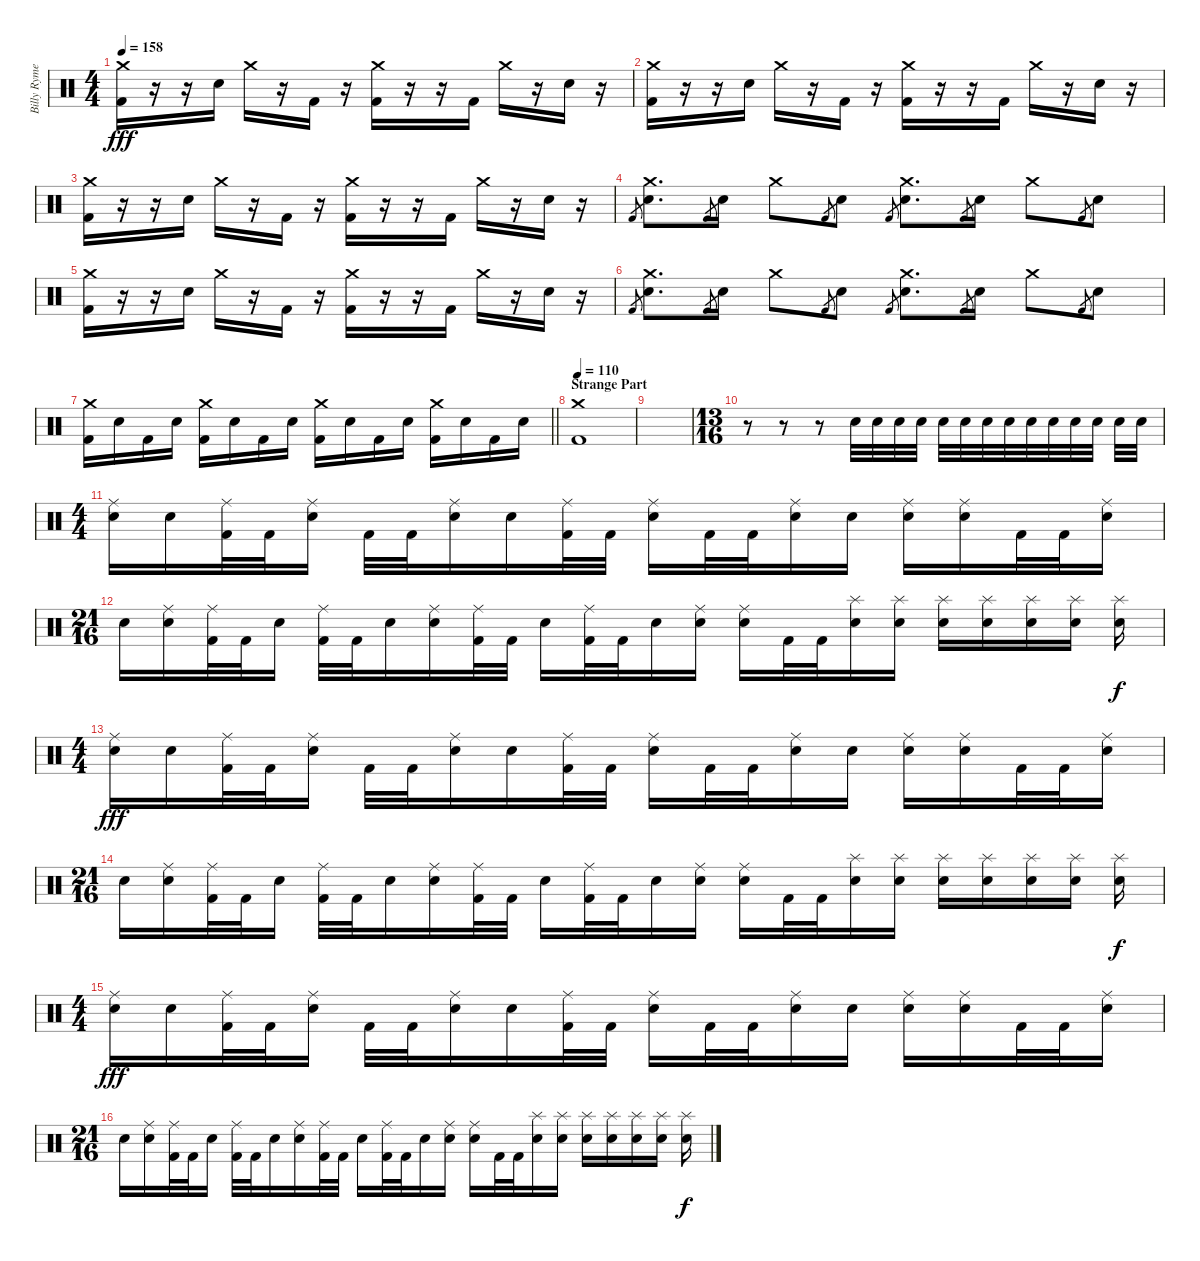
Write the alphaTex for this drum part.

\track ("Billy Rymer" "Billy Ryme") {instrument percussion}
\staff {score}
\articulation defaults
\ts (4 4)
\tempo 158
\clef neutral
\ks c
("Crash medium (hit)" "Kick (hit) 2").16{dy fff} r.16 r.16 "Electric Snare (hit)".16 "Crash medium (hit)".16 r.16 "Kick (hit) 2".16 r.16 ("Crash medium (hit)" "Kick (hit) 2").16 r.16 r.16 "Kick (hit) 2".16 "Crash medium (hit)".16 r.16 "Electric Snare (hit)".16 r.16 |
("Crash medium (hit)" "Kick (hit) 2").16 r.16 r.16 "Electric Snare (hit)".16 "Crash medium (hit)".16 r.16 "Kick (hit) 2".16 r.16 ("Crash medium (hit)" "Kick (hit) 2").16 r.16 r.16 "Kick (hit) 2".16 "Crash medium (hit)".16 r.16 "Electric Snare (hit)".16 r.16 |
("Crash medium (hit)" "Kick (hit) 2").16 r.16 r.16 "Electric Snare (hit)".16 "Crash medium (hit)".16 r.16 "Kick (hit) 2".16 r.16 ("Crash medium (hit)" "Kick (hit) 2").16 r.16 r.16 "Kick (hit) 2".16 "Crash medium (hit)".16 r.16 "Electric Snare (hit)".16 r.16 |
"Kick (hit) 2".8{gr} ("Crash medium (hit)" "Electric Snare (hit)").8{d} "Kick (hit) 2".8{gr} "Electric Snare (hit)".16 "Crash medium (hit)".8 "Kick (hit) 2".8{gr} "Electric Snare (hit)".8 "Kick (hit) 2".8{gr} ("Crash medium (hit)" "Electric Snare (hit)").8{d} "Kick (hit) 2".8{gr} "Electric Snare (hit)".16 "Crash medium (hit)".8 "Kick (hit) 2".8{gr} "Electric Snare (hit)".8 |
("Crash medium (hit)" "Kick (hit) 2").16 r.16 r.16 "Electric Snare (hit)".16 "Crash medium (hit)".16 r.16 "Kick (hit) 2".16 r.16 ("Crash medium (hit)" "Kick (hit) 2").16 r.16 r.16 "Kick (hit) 2".16 "Crash medium (hit)".16 r.16 "Electric Snare (hit)".16 r.16 |
"Kick (hit) 2".8{gr} ("Crash medium (hit)" "Electric Snare (hit)").8{d} "Kick (hit) 2".8{gr} "Electric Snare (hit)".16 "Crash medium (hit)".8 "Kick (hit) 2".8{gr} "Electric Snare (hit)".8 "Kick (hit) 2".8{gr} ("Crash medium (hit)" "Electric Snare (hit)").8{d} "Kick (hit) 2".8{gr} "Electric Snare (hit)".16 "Crash medium (hit)".8 "Kick (hit) 2".8{gr} "Electric Snare (hit)".8 |
\barLineRight lightlight
("Crash medium (hit)" "Kick (hit) 2").16 "Electric Snare (hit)".16 "Kick (hit) 2".16 "Electric Snare (hit)".16 ("Crash medium (hit)" "Kick (hit) 2").16 "Electric Snare (hit)".16 "Kick (hit) 2".16 "Electric Snare (hit)".16 ("Crash medium (hit)" "Kick (hit) 2").16 "Electric Snare (hit)".16 "Kick (hit) 2".16 "Electric Snare (hit)".16 ("Crash medium (hit)" "Kick (hit) 2").16 "Electric Snare (hit)".16 "Kick (hit) 2".16 "Electric Snare (hit)".16 |
\section ("" "Strange Part")
\tempo 110
("Crash medium (hit)" "Kick (hit) 2").1 |
|
\ts (13 16)
r.8 r.8 r.8 "Electric Snare (hit)".32 "Electric Snare (hit)".32 "Electric Snare (hit)".32 "Electric Snare (hit)".32 "Electric Snare (hit)".32 "Electric Snare (hit)".32 "Electric Snare (hit)".32 "Electric Snare (hit)".32 "Electric Snare (hit)".32 "Electric Snare (hit)".32 "Electric Snare (hit)".32 "Electric Snare (hit)".32 "Electric Snare (hit)".32 "Electric Snare (hit)".32 |
\ts (4 4)
("Ride (middle)" "Electric Snare (hit)").16 "Electric Snare (hit)".16 ("Ride (middle)" "Kick (hit) 2").32 "Kick (hit) 2".32 ("Ride (middle)" "Electric Snare (hit)").16 "Kick (hit) 2".32 "Kick (hit) 2".32 ("Ride (middle)" "Electric Snare (hit)").16 "Electric Snare (hit)".16 ("Ride (middle)" "Kick (hit) 2").32 "Kick (hit) 2".32 ("Ride (middle)" "Electric Snare (hit)").16 "Kick (hit) 2".32 "Kick (hit) 2".32 ("Ride (middle)" "Electric Snare (hit)").16 "Electric Snare (hit)".16 ("Ride (middle)" "Electric Snare (hit)").16 ("Ride (middle)" "Electric Snare (hit)").16 "Kick (hit) 2".32 "Kick (hit) 2".32 ("Ride (middle)" "Electric Snare (hit)").16 |
\ts (21 16)
"Electric Snare (hit)".16 ("Ride (middle)" "Electric Snare (hit)").16 ("Ride (middle)" "Kick (hit) 2").32 "Kick (hit) 2".32 "Electric Snare (hit)".16 ("Ride (middle)" "Kick (hit) 2").32 "Kick (hit) 2".32 "Electric Snare (hit)".16 ("Ride (middle)" "Electric Snare (hit)").16 ("Ride (middle)" "Kick (hit) 2").32 "Kick (hit) 2".32 "Electric Snare (hit)".16 ("Ride (middle)" "Kick (hit) 2").32 "Kick (hit) 2".32 "Electric Snare (hit)".16 ("Ride (middle)" "Electric Snare (hit)").16 ("Ride (middle)" "Electric Snare (hit)").16 "Kick (hit) 2".32 "Kick (hit) 2".32 ("Splash (hit)" "Electric Snare (hit)").16 ("Splash (hit)" "Electric Snare (hit)").16 ("Splash (hit)" "Electric Snare (hit)").16 ("Splash (hit)" "Electric Snare (hit)").16 ("Splash (hit)" "Electric Snare (hit)").16 ("Splash (hit)" "Electric Snare (hit)").16 ("Splash (hit)" "Electric Snare (hit)").16{dy f} |
\ts (4 4)
("Ride (middle)" "Electric Snare (hit)").16{dy fff} "Electric Snare (hit)".16 ("Ride (middle)" "Kick (hit) 2").32 "Kick (hit) 2".32 ("Ride (middle)" "Electric Snare (hit)").16 "Kick (hit) 2".32 "Kick (hit) 2".32 ("Ride (middle)" "Electric Snare (hit)").16 "Electric Snare (hit)".16 ("Ride (middle)" "Kick (hit) 2").32 "Kick (hit) 2".32 ("Ride (middle)" "Electric Snare (hit)").16 "Kick (hit) 2".32 "Kick (hit) 2".32 ("Ride (middle)" "Electric Snare (hit)").16 "Electric Snare (hit)".16 ("Ride (middle)" "Electric Snare (hit)").16 ("Ride (middle)" "Electric Snare (hit)").16 "Kick (hit) 2".32 "Kick (hit) 2".32 ("Ride (middle)" "Electric Snare (hit)").16 |
\ts (21 16)
"Electric Snare (hit)".16 ("Ride (middle)" "Electric Snare (hit)").16 ("Ride (middle)" "Kick (hit) 2").32 "Kick (hit) 2".32 "Electric Snare (hit)".16 ("Ride (middle)" "Kick (hit) 2").32 "Kick (hit) 2".32 "Electric Snare (hit)".16 ("Ride (middle)" "Electric Snare (hit)").16 ("Ride (middle)" "Kick (hit) 2").32 "Kick (hit) 2".32 "Electric Snare (hit)".16 ("Ride (middle)" "Kick (hit) 2").32 "Kick (hit) 2".32 "Electric Snare (hit)".16 ("Ride (middle)" "Electric Snare (hit)").16 ("Ride (middle)" "Electric Snare (hit)").16 "Kick (hit) 2".32 "Kick (hit) 2".32 ("Splash (hit)" "Electric Snare (hit)").16 ("Splash (hit)" "Electric Snare (hit)").16 ("Splash (hit)" "Electric Snare (hit)").16 ("Splash (hit)" "Electric Snare (hit)").16 ("Splash (hit)" "Electric Snare (hit)").16 ("Splash (hit)" "Electric Snare (hit)").16 ("Splash (hit)" "Electric Snare (hit)").16{dy f} |
\ts (4 4)
("Ride (middle)" "Electric Snare (hit)").16{dy fff} "Electric Snare (hit)".16 ("Ride (middle)" "Kick (hit) 2").32 "Kick (hit) 2".32 ("Ride (middle)" "Electric Snare (hit)").16 "Kick (hit) 2".32 "Kick (hit) 2".32 ("Ride (middle)" "Electric Snare (hit)").16 "Electric Snare (hit)".16 ("Ride (middle)" "Kick (hit) 2").32 "Kick (hit) 2".32 ("Ride (middle)" "Electric Snare (hit)").16 "Kick (hit) 2".32 "Kick (hit) 2".32 ("Ride (middle)" "Electric Snare (hit)").16 "Electric Snare (hit)".16 ("Ride (middle)" "Electric Snare (hit)").16 ("Ride (middle)" "Electric Snare (hit)").16 "Kick (hit) 2".32 "Kick (hit) 2".32 ("Ride (middle)" "Electric Snare (hit)").16 |
\ts (21 16)
"Electric Snare (hit)".16 ("Ride (middle)" "Electric Snare (hit)").16 ("Ride (middle)" "Kick (hit) 2").32 "Kick (hit) 2".32 "Electric Snare (hit)".16 ("Ride (middle)" "Kick (hit) 2").32 "Kick (hit) 2".32 "Electric Snare (hit)".16 ("Ride (middle)" "Electric Snare (hit)").16 ("Ride (middle)" "Kick (hit) 2").32 "Kick (hit) 2".32 "Electric Snare (hit)".16 ("Ride (middle)" "Kick (hit) 2").32 "Kick (hit) 2".32 "Electric Snare (hit)".16 ("Ride (middle)" "Electric Snare (hit)").16 ("Ride (middle)" "Electric Snare (hit)").16 "Kick (hit) 2".32 "Kick (hit) 2".32 ("Splash (hit)" "Electric Snare (hit)").16 ("Splash (hit)" "Electric Snare (hit)").16 ("Splash (hit)" "Electric Snare (hit)").16 ("Splash (hit)" "Electric Snare (hit)").16 ("Splash (hit)" "Electric Snare (hit)").16 ("Splash (hit)" "Electric Snare (hit)").16 ("Splash (hit)" "Electric Snare (hit)").16{dy f}
